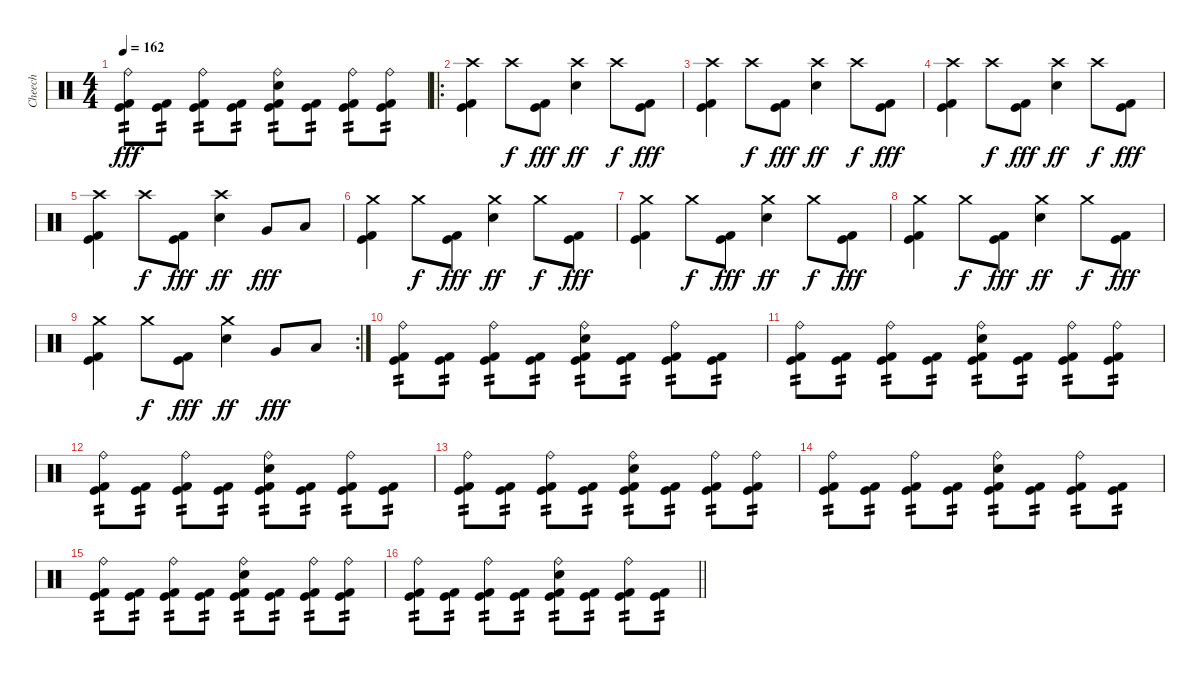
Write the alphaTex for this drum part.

\track ("Cheech" "Cheech") {instrument percussion}
\staff {score}
\articulation defaults
\ts (4 4)
\tempo 162
\clef neutral
\ks c
("Ride (bell)" "Kick (hit) 2" "Kick (hit)").8{tp 2 dy fff} ("Kick (hit) 2" "Kick (hit)").8{tp 2} ("Ride (bell)" "Kick (hit) 2" "Kick (hit)").8{tp 2} ("Kick (hit) 2" "Kick (hit)").8{tp 2} ("Ride (bell)" "Electric Snare (hit)" "Kick (hit) 2" "Kick (hit)").8{tp 2} ("Kick (hit) 2" "Kick (hit)").8{tp 2} ("Ride (bell)" "Kick (hit) 2" "Kick (hit)").8{tp 2} ("Ride (bell)" "Kick (hit) 2" "Kick (hit)").8{tp 2} |
\ro
("Crash high (hit)" "Kick (hit) 2" "Kick (hit)").4 "Crash high (hit)".8{dy f} ("Kick (hit) 2" "Kick (hit)").8{dy fff} ("Crash high (hit)" "Electric Snare (hit)").4{dy ff} "Crash high (hit)".8{dy f} ("Kick (hit) 2" "Kick (hit)").8{dy fff} |
("Crash high (hit)" "Kick (hit) 2" "Kick (hit)").4 "Crash high (hit)".8{dy f} ("Kick (hit) 2" "Kick (hit)").8{dy fff} ("Crash high (hit)" "Electric Snare (hit)").4{dy ff} "Crash high (hit)".8{dy f} ("Kick (hit) 2" "Kick (hit)").8{dy fff} |
("Crash high (hit)" "Kick (hit) 2" "Kick (hit)").4 "Crash high (hit)".8{dy f} ("Kick (hit) 2" "Kick (hit)").8{dy fff} ("Crash high (hit)" "Electric Snare (hit)").4{dy ff} "Crash high (hit)".8{dy f} ("Kick (hit) 2" "Kick (hit)").8{dy fff} |
("Crash high (hit)" "Kick (hit) 2" "Kick (hit)").4 "Crash high (hit)".8{dy f} ("Kick (hit) 2" "Kick (hit)").8{dy fff} ("Crash high (hit)" "Electric Snare (hit)").4{dy ff} "Very Low Tom (hit)".8{dy fff} "Low Floor Tom (hit)".8 |
("Crash medium (hit)" "Kick (hit) 2" "Kick (hit)").4 "Crash medium (hit)".8{dy f} ("Kick (hit) 2" "Kick (hit)").8{dy fff} ("Crash medium (hit)" "Electric Snare (hit)").4{dy ff} "Crash medium (hit)".8{dy f} ("Kick (hit) 2" "Kick (hit)").8{dy fff} |
("Crash medium (hit)" "Kick (hit) 2" "Kick (hit)").4 "Crash medium (hit)".8{dy f} ("Kick (hit) 2" "Kick (hit)").8{dy fff} ("Crash medium (hit)" "Electric Snare (hit)").4{dy ff} "Crash medium (hit)".8{dy f} ("Kick (hit) 2" "Kick (hit)").8{dy fff} |
("Crash medium (hit)" "Kick (hit) 2" "Kick (hit)").4 "Crash medium (hit)".8{dy f} ("Kick (hit) 2" "Kick (hit)").8{dy fff} ("Crash medium (hit)" "Electric Snare (hit)").4{dy ff} "Crash medium (hit)".8{dy f} ("Kick (hit) 2" "Kick (hit)").8{dy fff} |
\rc 2
("Crash medium (hit)" "Kick (hit) 2" "Kick (hit)").4 "Crash medium (hit)".8{dy f} ("Kick (hit) 2" "Kick (hit)").8{dy fff} ("Crash medium (hit)" "Electric Snare (hit)").4{dy ff} "Very Low Tom (hit)".8{dy fff} "Low Floor Tom (hit)".8 |
("Ride (bell)" "Kick (hit) 2" "Kick (hit)").8{tp 2} ("Kick (hit) 2" "Kick (hit)").8{tp 2} ("Ride (bell)" "Kick (hit) 2" "Kick (hit)").8{tp 2} ("Kick (hit) 2" "Kick (hit)").8{tp 2} ("Ride (bell)" "Electric Snare (hit)" "Kick (hit) 2" "Kick (hit)").8{tp 2} ("Kick (hit) 2" "Kick (hit)").8{tp 2} ("Ride (bell)" "Kick (hit) 2" "Kick (hit)").8{tp 2} ("Kick (hit) 2" "Kick (hit)").8{tp 2} |
("Ride (bell)" "Kick (hit) 2" "Kick (hit)").8{tp 2} ("Kick (hit) 2" "Kick (hit)").8{tp 2} ("Ride (bell)" "Kick (hit) 2" "Kick (hit)").8{tp 2} ("Kick (hit) 2" "Kick (hit)").8{tp 2} ("Ride (bell)" "Electric Snare (hit)" "Kick (hit) 2" "Kick (hit)").8{tp 2} ("Kick (hit) 2" "Kick (hit)").8{tp 2} ("Ride (bell)" "Kick (hit) 2" "Kick (hit)").8{tp 2} ("Ride (bell)" "Kick (hit) 2" "Kick (hit)").8{tp 2} |
("Ride (bell)" "Kick (hit) 2" "Kick (hit)").8{tp 2} ("Kick (hit) 2" "Kick (hit)").8{tp 2} ("Ride (bell)" "Kick (hit) 2" "Kick (hit)").8{tp 2} ("Kick (hit) 2" "Kick (hit)").8{tp 2} ("Ride (bell)" "Electric Snare (hit)" "Kick (hit) 2" "Kick (hit)").8{tp 2} ("Kick (hit) 2" "Kick (hit)").8{tp 2} ("Ride (bell)" "Kick (hit) 2" "Kick (hit)").8{tp 2} ("Kick (hit) 2" "Kick (hit)").8{tp 2} |
("Ride (bell)" "Kick (hit) 2" "Kick (hit)").8{tp 2} ("Kick (hit) 2" "Kick (hit)").8{tp 2} ("Ride (bell)" "Kick (hit) 2" "Kick (hit)").8{tp 2} ("Kick (hit) 2" "Kick (hit)").8{tp 2} ("Ride (bell)" "Electric Snare (hit)" "Kick (hit) 2" "Kick (hit)").8{tp 2} ("Kick (hit) 2" "Kick (hit)").8{tp 2} ("Ride (bell)" "Kick (hit) 2" "Kick (hit)").8{tp 2} ("Ride (bell)" "Kick (hit) 2" "Kick (hit)").8{tp 2} |
("Ride (bell)" "Kick (hit) 2" "Kick (hit)").8{tp 2} ("Kick (hit) 2" "Kick (hit)").8{tp 2} ("Ride (bell)" "Kick (hit) 2" "Kick (hit)").8{tp 2} ("Kick (hit) 2" "Kick (hit)").8{tp 2} ("Ride (bell)" "Electric Snare (hit)" "Kick (hit) 2" "Kick (hit)").8{tp 2} ("Kick (hit) 2" "Kick (hit)").8{tp 2} ("Ride (bell)" "Kick (hit) 2" "Kick (hit)").8{tp 2} ("Kick (hit) 2" "Kick (hit)").8{tp 2} |
("Ride (bell)" "Kick (hit) 2" "Kick (hit)").8{tp 2} ("Kick (hit) 2" "Kick (hit)").8{tp 2} ("Ride (bell)" "Kick (hit) 2" "Kick (hit)").8{tp 2} ("Kick (hit) 2" "Kick (hit)").8{tp 2} ("Ride (bell)" "Electric Snare (hit)" "Kick (hit) 2" "Kick (hit)").8{tp 2} ("Kick (hit) 2" "Kick (hit)").8{tp 2} ("Ride (bell)" "Kick (hit) 2" "Kick (hit)").8{tp 2} ("Ride (bell)" "Kick (hit) 2" "Kick (hit)").8{tp 2} |
\barLineRight lightlight
("Ride (bell)" "Kick (hit) 2" "Kick (hit)").8{tp 2} ("Kick (hit) 2" "Kick (hit)").8{tp 2} ("Ride (bell)" "Kick (hit) 2" "Kick (hit)").8{tp 2} ("Kick (hit) 2" "Kick (hit)").8{tp 2} ("Ride (bell)" "Electric Snare (hit)" "Kick (hit) 2" "Kick (hit)").8{tp 2} ("Kick (hit) 2" "Kick (hit)").8{tp 2} ("Ride (bell)" "Kick (hit) 2" "Kick (hit)").8{tp 2} ("Kick (hit) 2" "Kick (hit)").8{tp 2}
